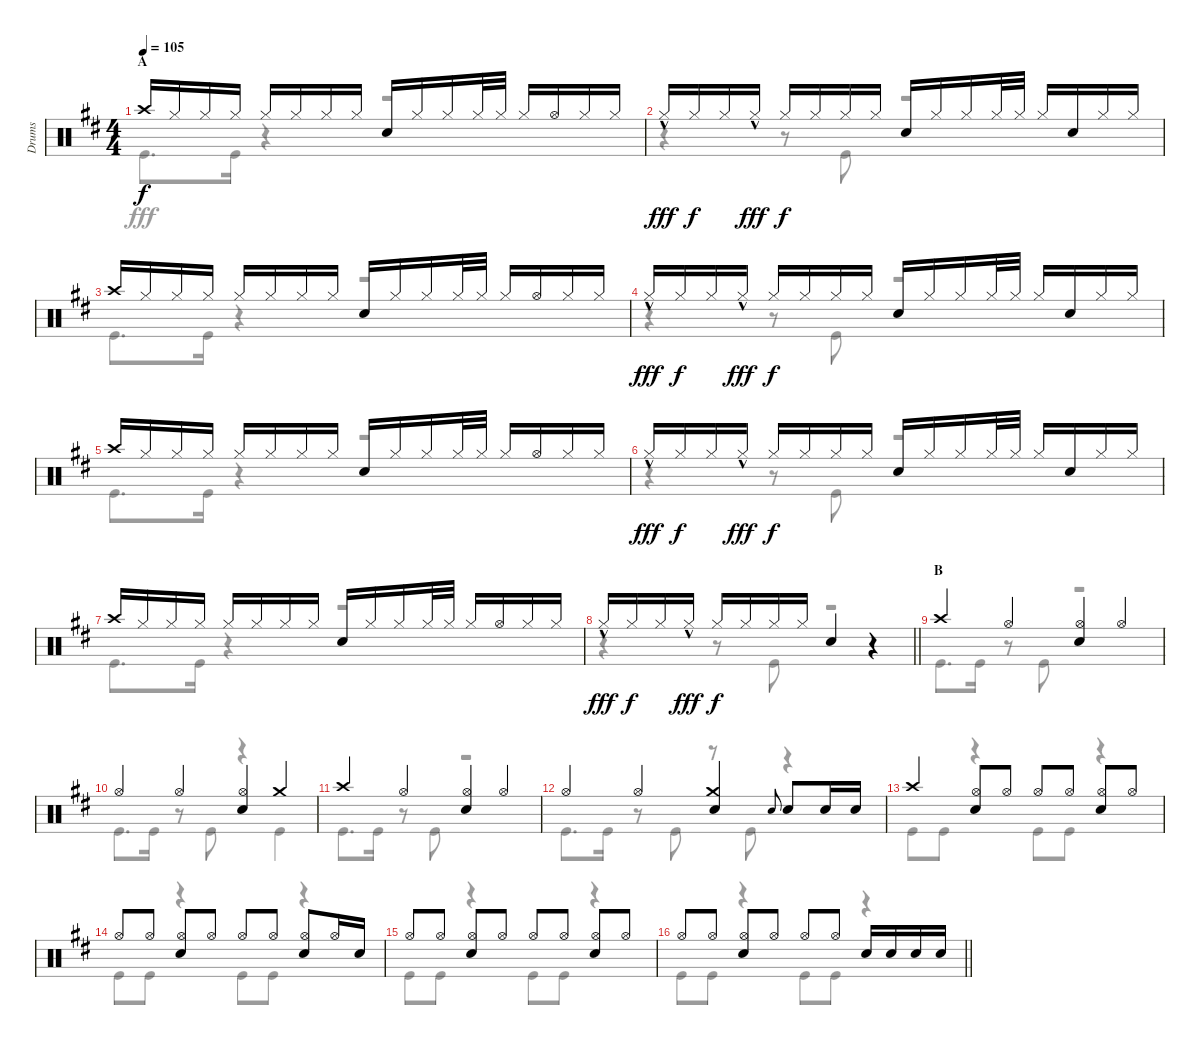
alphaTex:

\track ("Drums" "Drums") {instrument percussion}
\staff {score}
\articulation defaults
\voice
\ts (4 4)
\section ("" "A")
\tempo 105
\clef neutral
\ks d "Crash high (hit)".16{dy f} "Hi-Hat (closed)".16 "Hi-Hat (closed)".16 "Hi-Hat (closed)".16 "Hi-Hat (closed)".16 "Hi-Hat (closed)".16 "Hi-Hat (closed)".16 "Hi-Hat (closed)".16 "Snare (hit) 2".16 "Hi-Hat (closed)".16 "Hi-Hat (closed)".16 "Hi-Hat (closed)".32 "Hi-Hat (closed)".32 "Hi-Hat (closed)".16 "Hi-Hat (open)".16 "Hi-Hat (closed)".16 "Hi-Hat (closed)".16
|
"Hi-Hat (closed)"{hac}.16{dy fff} "Hi-Hat (closed)".16{dy f} "Hi-Hat (closed)".16 "Hi-Hat (closed)"{hac}.16{dy fff} "Hi-Hat (closed)".16{dy f} "Hi-Hat (closed)".16 "Hi-Hat (closed)".16 "Hi-Hat (closed)".16 "Snare (hit) 2".16 "Hi-Hat (closed)".16 "Hi-Hat (closed)".16 "Hi-Hat (closed)".32 "Hi-Hat (closed)".32 "Hi-Hat (closed)".16 "Snare (hit) 2".16 "Hi-Hat (closed)".16 "Hi-Hat (closed)".16 |
"Crash high (hit)".16 "Hi-Hat (closed)".16 "Hi-Hat (closed)".16 "Hi-Hat (closed)".16 "Hi-Hat (closed)".16 "Hi-Hat (closed)".16 "Hi-Hat (closed)".16 "Hi-Hat (closed)".16 "Snare (hit) 2".16 "Hi-Hat (closed)".16 "Hi-Hat (closed)".16 "Hi-Hat (closed)".32 "Hi-Hat (closed)".32 "Hi-Hat (closed)".16 "Hi-Hat (open)".16 "Hi-Hat (closed)".16 "Hi-Hat (closed)".16 |
"Hi-Hat (closed)"{hac}.16{dy fff} "Hi-Hat (closed)".16{dy f} "Hi-Hat (closed)".16 "Hi-Hat (closed)"{hac}.16{dy fff} "Hi-Hat (closed)".16{dy f} "Hi-Hat (closed)".16 "Hi-Hat (closed)".16 "Hi-Hat (closed)".16 "Snare (hit) 2".16 "Hi-Hat (closed)".16 "Hi-Hat (closed)".16 "Hi-Hat (closed)".32 "Hi-Hat (closed)".32 "Hi-Hat (closed)".16 "Snare (hit) 2".16 "Hi-Hat (closed)".16 "Hi-Hat (closed)".16 |
"Crash high (hit)".16 "Hi-Hat (closed)".16 "Hi-Hat (closed)".16 "Hi-Hat (closed)".16 "Hi-Hat (closed)".16 "Hi-Hat (closed)".16 "Hi-Hat (closed)".16 "Hi-Hat (closed)".16 "Snare (hit) 2".16 "Hi-Hat (closed)".16 "Hi-Hat (closed)".16 "Hi-Hat (closed)".32 "Hi-Hat (closed)".32 "Hi-Hat (closed)".16 "Hi-Hat (open)".16 "Hi-Hat (closed)".16 "Hi-Hat (closed)".16 |
"Hi-Hat (closed)"{hac}.16{dy fff} "Hi-Hat (closed)".16{dy f} "Hi-Hat (closed)".16 "Hi-Hat (closed)"{hac}.16{dy fff} "Hi-Hat (closed)".16{dy f} "Hi-Hat (closed)".16 "Hi-Hat (closed)".16 "Hi-Hat (closed)".16 "Snare (hit) 2".16 "Hi-Hat (closed)".16 "Hi-Hat (closed)".16 "Hi-Hat (closed)".32 "Hi-Hat (closed)".32 "Hi-Hat (closed)".16 "Snare (hit) 2".16 "Hi-Hat (closed)".16 "Hi-Hat (closed)".16 |
"Crash high (hit)".16 "Hi-Hat (closed)".16 "Hi-Hat (closed)".16 "Hi-Hat (closed)".16 "Hi-Hat (closed)".16 "Hi-Hat (closed)".16 "Hi-Hat (closed)".16 "Hi-Hat (closed)".16 "Snare (hit) 2".16 "Hi-Hat (closed)".16 "Hi-Hat (closed)".16 "Hi-Hat (closed)".32 "Hi-Hat (closed)".32 "Hi-Hat (closed)".16 "Hi-Hat (open)".16 "Hi-Hat (closed)".16 "Hi-Hat (closed)".16 |
\barLineRight lightlight "Hi-Hat (closed)"{hac}.16{dy fff} "Hi-Hat (closed)".16{dy f} "Hi-Hat (closed)".16 "Hi-Hat (closed)"{hac}.16{dy fff} "Hi-Hat (closed)".16{dy f} "Hi-Hat (closed)".16 "Hi-Hat (closed)".16 "Hi-Hat (closed)".16 "Snare (hit) 2".4
r.4 |
\section ("" "B")
"Crash high (hit)".4 "Hi-Hat (open)".4 ("Hi-Hat (open)" "Snare (hit) 2").4 "Hi-Hat (open)".4 |
"Hi-Hat (open)".4 "Hi-Hat (open)".4 ("Hi-Hat (open)" "Snare (hit) 2").4 "Crash medium (hit)".4 |
"Crash high (hit)".4 "Hi-Hat (open)".4 ("Hi-Hat (open)" "Snare (hit) 2").4 "Hi-Hat (open)".4 |
"Hi-Hat (open)".4 "Hi-Hat (open)".4 ("Crash medium (hit)" "Snare (hit) 2").4 "Snare (hit) 2".8{gr onbeat} "Snare (hit) 2".8 "Snare (hit) 2".16 "Snare (hit) 2".16 |
"Crash high (hit)".4 ("Hi-Hat (open)" "Snare (hit) 2").8 "Hi-Hat (open)".8 "Hi-Hat (open)".8 "Hi-Hat (open)".8 ("Hi-Hat (open)" "Snare (hit) 2").8 "Hi-Hat (open)".8 |
"Hi-Hat (open)".8 "Hi-Hat (open)".8 ("Hi-Hat (open)" "Snare (hit) 2").8 "Hi-Hat (open)".8 "Hi-Hat (open)".8 "Hi-Hat (open)".8 ("Hi-Hat (open)" "Snare (hit) 2").8 "Hi-Hat (open)".16 "Snare (hit) 2".16 |
"Hi-Hat (open)".8 "Hi-Hat (open)".8 ("Hi-Hat (open)" "Snare (hit) 2").8 "Hi-Hat (open)".8 "Hi-Hat (open)".8 "Hi-Hat (open)".8 ("Hi-Hat (open)" "Snare (hit) 2").8 "Hi-Hat (open)".8 |
\barLineRight lightlight "Hi-Hat (open)".8 "Hi-Hat (open)".8
("Hi-Hat (open)" "Snare (hit) 2").8 "Hi-Hat (open)".8 "Hi-Hat (open)".8 "Hi-Hat (open)".8 "Snare (hit) 2".16 "Snare (hit) 2".16 "Snare (hit) 2".16 "Snare (hit) 2".16
\voice
\clef neutral
\ottava regular
\simile none
\ks d "Kick (hit)".8{d dy fff} "Kick (hit)".16
r.4 r.2 |
r.4 r.8 "Kick (hit)".8 r.2 |
"Kick (hit)".8{d} "Kick (hit)".16 r.4 r.2 |
r.4 r.8 "Kick (hit)".8 r.2 |
"Kick (hit)".8{d} "Kick (hit)".16 r.4 r.2 |
r.4 r.8 "Kick (hit)".8 r.2 |
"Kick (hit)".8{d} "Kick (hit)".16 r.4 r.2 |
\barLineRight lightlight
r.4 r.8 "Kick (hit)".8 r.2 |
"Kick (hit)".8{d} "Kick (hit)".16 r.8 "Kick (hit)".8 r.2 |
"Kick (hit)".8{d} "Kick (hit)".16 r.8 "Kick (hit)".8 r.4 "Kick (hit)".4 |
"Kick (hit)".8{d} "Kick (hit)".16 r.8 "Kick (hit)".8 r.2 |
"Kick (hit)".8{d} "Kick (hit)".16 r.8 "Kick (hit)".8 r.8 "Kick (hit)".8 r.4 |
"Kick (hit)".8 "Kick (hit)".8 r.4 "Kick (hit)".8 "Kick (hit)".8 r.4 |
"Kick (hit)".8 "Kick (hit)".8 r.4 "Kick (hit)".8 "Kick (hit)".8 r.4 |
"Kick (hit)".8 "Kick (hit)".8 r.4 "Kick (hit)".8 "Kick (hit)".8 r.4 |
\barLineRight lightlight "Kick (hit)".8 "Kick (hit)".8
r.4 "Kick (hit)".8 "Kick (hit)".8 r.4
